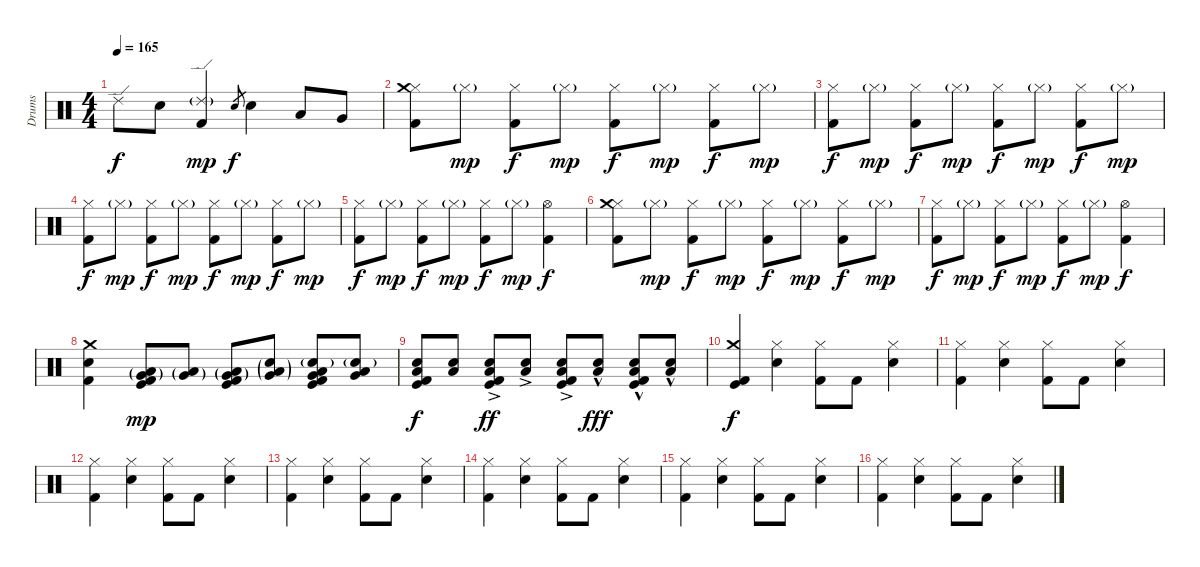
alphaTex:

\track ("Drums" "Drums") {instrument percussion}
\staff {score}
\articulation defaults
\ts (4 4)
\tempo 165
\clef neutral
\ks c "Ride (edge) 2".8{dy f} "Electric Snare (hit)".8
("Ride (edge) 2"{g} "Kick (hit) 2").4{dy mp} "Electric Snare (hit)".8{gr dy f} "Electric Snare (hit)".4 "Low Tom (hit)".8 "Very Low Tom (hit)".8 |
("Hi-Hat (closed)" "Kick (hit) 2" "Crash medium (hit)").8 "Hi-Hat (closed)"{g}.8{dy mp} ("Hi-Hat (closed)" "Kick (hit) 2").8{dy f} "Hi-Hat (closed)"{g}.8{dy mp} ("Hi-Hat (closed)" "Kick (hit) 2").8{dy f} "Hi-Hat (closed)"{g}.8{dy mp} ("Hi-Hat (closed)" "Kick (hit) 2").8{dy f} "Hi-Hat (closed)"{g}.8{dy mp} |
("Hi-Hat (closed)" "Kick (hit) 2").8{dy f} "Hi-Hat (closed)"{g}.8{dy mp} ("Hi-Hat (closed)" "Kick (hit) 2").8{dy f} "Hi-Hat (closed)"{g}.8{dy mp} ("Hi-Hat (closed)" "Kick (hit) 2").8{dy f} "Hi-Hat (closed)"{g}.8{dy mp} ("Hi-Hat (closed)" "Kick (hit) 2").8{dy f} "Hi-Hat (closed)"{g}.8{dy mp} |
("Hi-Hat (closed)" "Kick (hit) 2").8{dy f} "Hi-Hat (closed)"{g}.8{dy mp} ("Hi-Hat (closed)" "Kick (hit) 2").8{dy f} "Hi-Hat (closed)"{g}.8{dy mp} ("Hi-Hat (closed)" "Kick (hit) 2").8{dy f} "Hi-Hat (closed)"{g}.8{dy mp} ("Hi-Hat (closed)" "Kick (hit) 2").8{dy f} "Hi-Hat (closed)"{g}.8{dy mp} |
("Hi-Hat (closed)" "Kick (hit) 2").8{dy f} "Hi-Hat (closed)"{g}.8{dy mp} ("Hi-Hat (closed)" "Kick (hit) 2").8{dy f} "Hi-Hat (closed)"{g}.8{dy mp} ("Hi-Hat (closed)" "Kick (hit) 2").8{dy f} "Hi-Hat (closed)"{g}.8{dy mp} ("Hi-Hat (open)" "Kick (hit) 2").4{dy f} |
("Hi-Hat (closed)" "Kick (hit) 2" "Crash medium (hit)").8 "Hi-Hat (closed)"{g}.8{dy mp} ("Hi-Hat (closed)" "Kick (hit) 2").8{dy f} "Hi-Hat (closed)"{g}.8{dy mp} ("Hi-Hat (closed)" "Kick (hit) 2").8{dy f} "Hi-Hat (closed)"{g}.8{dy mp} ("Hi-Hat (closed)" "Kick (hit) 2").8{dy f} "Hi-Hat (closed)"{g}.8{dy mp} |
("Hi-Hat (closed)" "Kick (hit) 2").8{dy f} "Hi-Hat (closed)"{g}.8{dy mp} ("Hi-Hat (closed)" "Kick (hit) 2").8{dy f} "Hi-Hat (closed)"{g}.8{dy mp} ("Hi-Hat (closed)" "Kick (hit) 2").8{dy f} "Hi-Hat (closed)"{g}.8{dy mp} ("Hi-Hat (open)" "Kick (hit) 2").4{dy f} |
("Electric Snare (hit)" "Kick (hit) 2" "Crash medium (hit)").4 ("Low Floor Tom (hit)"{g} "Very Low Tom (hit)"{g} "Kick (hit) 2" "Kick (hit)").8{dy mp} ("Low Floor Tom (hit)"{g} "Very Low Tom (hit)"{g}).8 ("Low Floor Tom (hit)"{g} "Very Low Tom (hit)"{g} "Kick (hit) 2" "Kick (hit)").8 ("Low Floor Tom (hit)"{g} "Very Low Tom (hit)"{g} "Electric Snare (hit)"{g}).8 ("Low Floor Tom (hit)" "Very Low Tom (hit)" "Electric Snare (hit)"{g} "Kick (hit) 2" "Kick (hit)").8 ("Low Floor Tom (hit)" "Very Low Tom (hit)" "Electric Snare (hit)"{g}).8 |
("Low Floor Tom (hit)" "Electric Snare (hit)" "Kick (hit) 2" "Kick (hit)").8{dy f} ("Low Floor Tom (hit)" "Electric Snare (hit)").8 ("Low Floor Tom (hit)"{ac} "Electric Snare (hit)"{ac} "Kick (hit) 2" "Kick (hit)").8{dy ff} ("Low Floor Tom (hit)"{ac} "Electric Snare (hit)"{ac}).8 ("Low Floor Tom (hit)"{ac} "Electric Snare (hit)"{ac} "Kick (hit) 2" "Kick (hit)").8 ("Low Floor Tom (hit)"{hac} "Electric Snare (hit)"{hac}).8{dy fff} ("Low Floor Tom (hit)"{hac} "Electric Snare (hit)"{hac} "Kick (hit) 2" "Kick (hit)").8 ("Low Floor Tom (hit)"{hac} "Electric Snare (hit)"{hac}).8 |
("Kick (hit)" "Kick (hit) 2" "Crash medium (hit)").4{dy f} ("Hi-Hat (closed)" "Electric Snare (hit)").4 ("Hi-Hat (closed)" "Kick (hit) 2").8 "Kick (hit) 2".8 ("Hi-Hat (closed)" "Electric Snare (hit)").4 |
("Hi-Hat (closed)" "Kick (hit) 2").4 ("Hi-Hat (closed)" "Electric Snare (hit)").4 ("Hi-Hat (closed)" "Kick (hit) 2").8 "Kick (hit) 2".8 ("Hi-Hat (closed)" "Electric Snare (hit)").4 |
("Hi-Hat (closed)" "Kick (hit) 2").4 ("Hi-Hat (closed)" "Electric Snare (hit)").4 ("Hi-Hat (closed)" "Kick (hit) 2").8 "Kick (hit) 2".8 ("Hi-Hat (closed)" "Electric Snare (hit)").4 |
("Hi-Hat (closed)" "Kick (hit) 2").4 ("Hi-Hat (closed)" "Electric Snare (hit)").4 ("Hi-Hat (closed)" "Kick (hit) 2").8 "Kick (hit) 2".8 ("Hi-Hat (closed)" "Electric Snare (hit)").4 |
("Hi-Hat (closed)" "Kick (hit) 2").4 ("Hi-Hat (closed)" "Electric Snare (hit)").4 ("Hi-Hat (closed)" "Kick (hit) 2").8 "Kick (hit) 2".8 ("Hi-Hat (closed)" "Electric Snare (hit)").4 |
("Hi-Hat (closed)" "Kick (hit) 2").4 ("Hi-Hat (closed)" "Electric Snare (hit)").4 ("Hi-Hat (closed)" "Kick (hit) 2").8 "Kick (hit) 2".8 ("Hi-Hat (closed)" "Electric Snare (hit)").4 |
("Hi-Hat (closed)" "Kick (hit) 2").4 ("Hi-Hat (closed)" "Electric Snare (hit)").4 ("Hi-Hat (closed)" "Kick (hit) 2").8 "Kick (hit) 2".8 ("Hi-Hat (closed)" "Electric Snare (hit)").4
